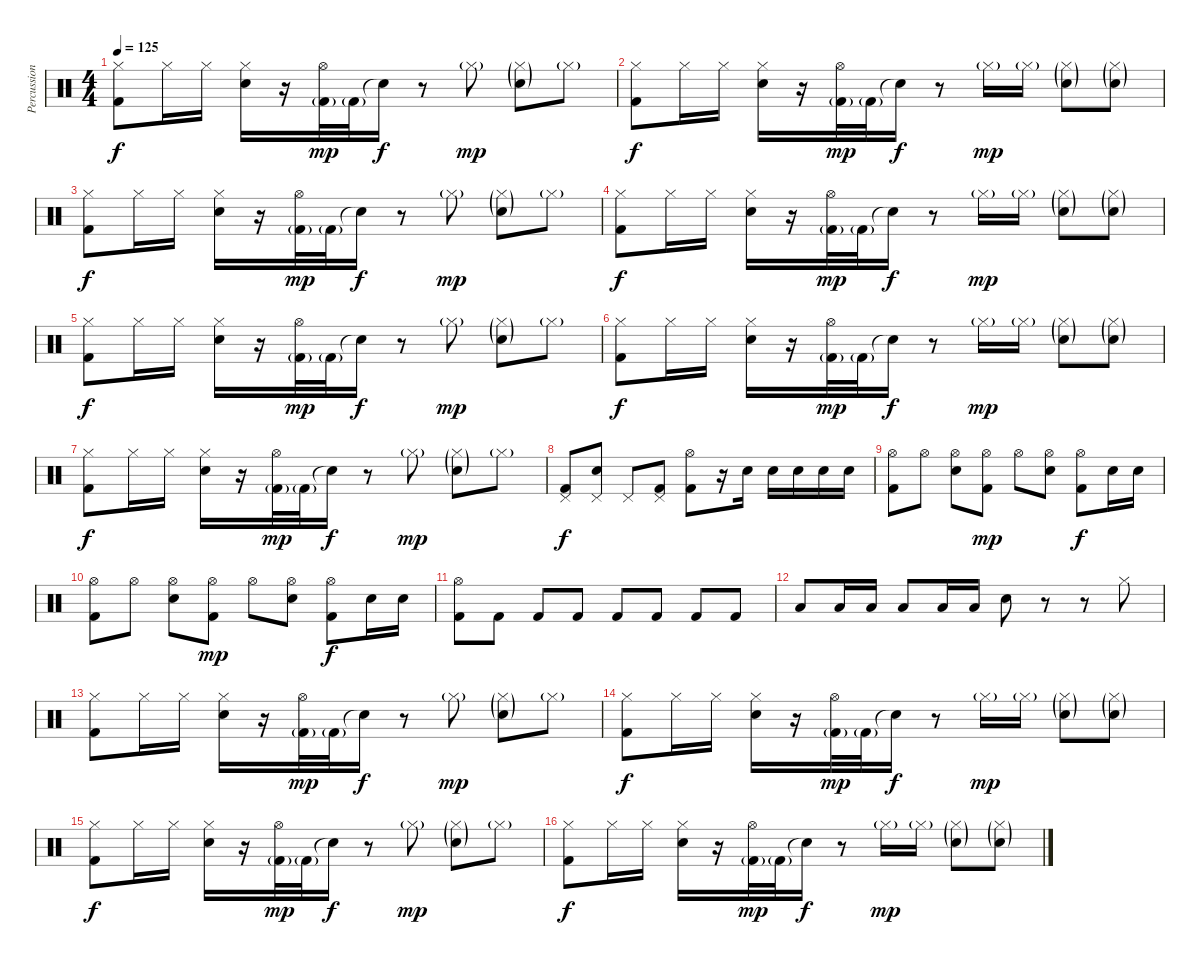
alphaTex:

\track ("Percussion" "Percussion") {instrument percussion}
\staff {score}
\articulation defaults
\ts (4 4)
\tempo 125
\clef neutral
\ks c
("Hi-Hat (closed)" "Kick (hit) 2").8{dy f} "Hi-Hat (closed)".16 "Hi-Hat (closed)".16 ("Hi-Hat (closed)" "Snare (hit) 2").16 r.16 ("Hi-Hat (open)" "Kick (hit) 2"{g}).32{dy mp} "Kick (hit) 2"{g}.32 "Snare (hit)"{t}.16{dy f} r.8 "Hi-Hat (closed)"{g}.8{dy mp} ("Hi-Hat (closed)"{g} "Snare (hit) 2"{g}).8 "Hi-Hat (closed)"{g}.8 |
("Hi-Hat (closed)" "Kick (hit) 2").8{dy f} "Hi-Hat (closed)".16 "Hi-Hat (closed)".16 ("Hi-Hat (closed)" "Snare (hit) 2").16 r.16 ("Hi-Hat (open)" "Kick (hit) 2"{g}).32{dy mp} "Kick (hit) 2"{g}.32 "Snare (hit)"{t}.16{dy f} r.8 "Hi-Hat (closed)"{g}.16{dy mp} "Hi-Hat (closed)"{g}.16 ("Hi-Hat (closed)"{g} "Snare (hit) 2"{g}).8 ("Hi-Hat (closed)"{g} "Snare (hit) 2"{g}).8 |
("Hi-Hat (closed)" "Kick (hit) 2").8{dy f} "Hi-Hat (closed)".16 "Hi-Hat (closed)".16 ("Hi-Hat (closed)" "Snare (hit) 2").16 r.16 ("Hi-Hat (open)" "Kick (hit) 2"{g}).32{dy mp} "Kick (hit) 2"{g}.32 "Snare (hit)"{t}.16{dy f} r.8 "Hi-Hat (closed)"{g}.8{dy mp} ("Hi-Hat (closed)"{g} "Snare (hit) 2"{g}).8 "Hi-Hat (closed)"{g}.8 |
("Hi-Hat (closed)" "Kick (hit) 2").8{dy f} "Hi-Hat (closed)".16 "Hi-Hat (closed)".16 ("Hi-Hat (closed)" "Snare (hit) 2").16 r.16 ("Hi-Hat (open)" "Kick (hit) 2"{g}).32{dy mp} "Kick (hit) 2"{g}.32 "Snare (hit)"{t}.16{dy f} r.8 "Hi-Hat (closed)"{g}.16{dy mp} "Hi-Hat (closed)"{g}.16 ("Hi-Hat (closed)"{g} "Snare (hit) 2"{g}).8 ("Hi-Hat (closed)"{g} "Snare (hit) 2"{g}).8 |
("Hi-Hat (closed)" "Kick (hit) 2").8{dy f} "Hi-Hat (closed)".16 "Hi-Hat (closed)".16 ("Hi-Hat (closed)" "Snare (hit) 2").16 r.16 ("Hi-Hat (open)" "Kick (hit) 2"{g}).32{dy mp} "Kick (hit) 2"{g}.32 "Snare (hit)"{t}.16{dy f} r.8 "Hi-Hat (closed)"{g}.8{dy mp} ("Hi-Hat (closed)"{g} "Snare (hit) 2"{g}).8 "Hi-Hat (closed)"{g}.8 |
("Hi-Hat (closed)" "Kick (hit) 2").8{dy f} "Hi-Hat (closed)".16 "Hi-Hat (closed)".16 ("Hi-Hat (closed)" "Snare (hit) 2").16 r.16 ("Hi-Hat (open)" "Kick (hit) 2"{g}).32{dy mp} "Kick (hit) 2"{g}.32 "Snare (hit)"{t}.16{dy f} r.8 "Hi-Hat (closed)"{g}.16{dy mp} "Hi-Hat (closed)"{g}.16 ("Hi-Hat (closed)"{g} "Snare (hit) 2"{g}).8 ("Hi-Hat (closed)"{g} "Snare (hit) 2"{g}).8 |
("Hi-Hat (closed)" "Kick (hit) 2").8{dy f} "Hi-Hat (closed)".16 "Hi-Hat (closed)".16 ("Hi-Hat (closed)" "Snare (hit) 2").16 r.16 ("Hi-Hat (open)" "Kick (hit) 2"{g}).32{dy mp} "Kick (hit) 2"{g}.32 "Snare (hit)"{t}.16{dy f} r.8 "Hi-Hat (closed)"{g}.8{dy mp} ("Hi-Hat (closed)"{g} "Snare (hit) 2"{g}).8 "Hi-Hat (closed)"{g}.8 |
("Pedal Hi-Hat (hit)" "Kick (hit) 2").8{dy f} ("Pedal Hi-Hat (hit)" "Snare (hit) 2").8 "Pedal Hi-Hat (hit)".8 ("Pedal Hi-Hat (hit)" "Kick (hit) 2").8 ("Hi-Hat (open)" "Kick (hit) 2").8 r.16 "Snare (hit) 2".16 "Snare (hit) 2".16 "Snare (hit) 2".16 "Snare (hit) 2".16 "Snare (hit) 2".16 |
("Hi-Hat (open)" "Kick (hit) 2").8 "Hi-Hat (open)".8 ("Hi-Hat (open)" "Snare (hit) 2").8 ("Hi-Hat (open)" "Kick (hit) 2").8{dy mp} "Hi-Hat (open)".8 ("Hi-Hat (open)" "Snare (hit) 2").8 ("Hi-Hat (open)" "Kick (hit) 2").8{dy f} "Snare (hit) 2".16 "Snare (hit) 2".16 |
("Hi-Hat (open)" "Kick (hit) 2").8 "Hi-Hat (open)".8 ("Hi-Hat (open)" "Snare (hit) 2").8 ("Hi-Hat (open)" "Kick (hit) 2").8{dy mp} "Hi-Hat (open)".8 ("Hi-Hat (open)" "Snare (hit) 2").8 ("Hi-Hat (open)" "Kick (hit) 2").8{dy f} "Snare (hit) 2".16 "Snare (hit) 2".16 |
("Hi-Hat (open)" "Kick (hit) 2").8 "Kick (hit) 2".8 "Kick (hit) 2".8 "Kick (hit) 2".8 "Kick (hit) 2".8 "Kick (hit) 2".8 "Kick (hit) 2".8 "Kick (hit) 2".8 |
"Low Floor Tom (hit)".8 "Low Tom (hit)".16 "Low Tom (hit)".16 "Low Floor Tom (hit)".8 "Low Tom (hit)".16 "Low Tom (hit)".16 "Snare (hit) 2".8 r.8 r.8 "Hi-Hat (closed)".8 |
("Hi-Hat (closed)" "Kick (hit) 2").8 "Hi-Hat (closed)".16 "Hi-Hat (closed)".16 ("Hi-Hat (closed)" "Snare (hit) 2").16 r.16 ("Hi-Hat (open)" "Kick (hit) 2"{g}).32{dy mp} "Kick (hit) 2"{g}.32 "Snare (hit)"{t}.16{dy f} r.8 "Hi-Hat (closed)"{g}.8{dy mp} ("Hi-Hat (closed)"{g} "Snare (hit) 2"{g}).8 "Hi-Hat (closed)"{g}.8 |
("Hi-Hat (closed)" "Kick (hit) 2").8{dy f} "Hi-Hat (closed)".16 "Hi-Hat (closed)".16 ("Hi-Hat (closed)" "Snare (hit) 2").16 r.16 ("Hi-Hat (open)" "Kick (hit) 2"{g}).32{dy mp} "Kick (hit) 2"{g}.32 "Snare (hit)"{t}.16{dy f} r.8 "Hi-Hat (closed)"{g}.16{dy mp} "Hi-Hat (closed)"{g}.16 ("Hi-Hat (closed)"{g} "Snare (hit) 2"{g}).8 ("Hi-Hat (closed)"{g} "Snare (hit) 2"{g}).8 |
("Hi-Hat (closed)" "Kick (hit) 2").8{dy f} "Hi-Hat (closed)".16 "Hi-Hat (closed)".16 ("Hi-Hat (closed)" "Snare (hit) 2").16 r.16 ("Hi-Hat (open)" "Kick (hit) 2"{g}).32{dy mp} "Kick (hit) 2"{g}.32 "Snare (hit)"{t}.16{dy f} r.8 "Hi-Hat (closed)"{g}.8{dy mp} ("Hi-Hat (closed)"{g} "Snare (hit) 2"{g}).8 "Hi-Hat (closed)"{g}.8 |
("Hi-Hat (closed)" "Kick (hit) 2").8{dy f} "Hi-Hat (closed)".16 "Hi-Hat (closed)".16 ("Hi-Hat (closed)" "Snare (hit) 2").16 r.16 ("Hi-Hat (open)" "Kick (hit) 2"{g}).32{dy mp} "Kick (hit) 2"{g}.32 "Snare (hit)"{t}.16{dy f} r.8 "Hi-Hat (closed)"{g}.16{dy mp} "Hi-Hat (closed)"{g}.16 ("Hi-Hat (closed)"{g} "Snare (hit) 2"{g}).8 ("Hi-Hat (closed)"{g} "Snare (hit) 2"{g}).8
